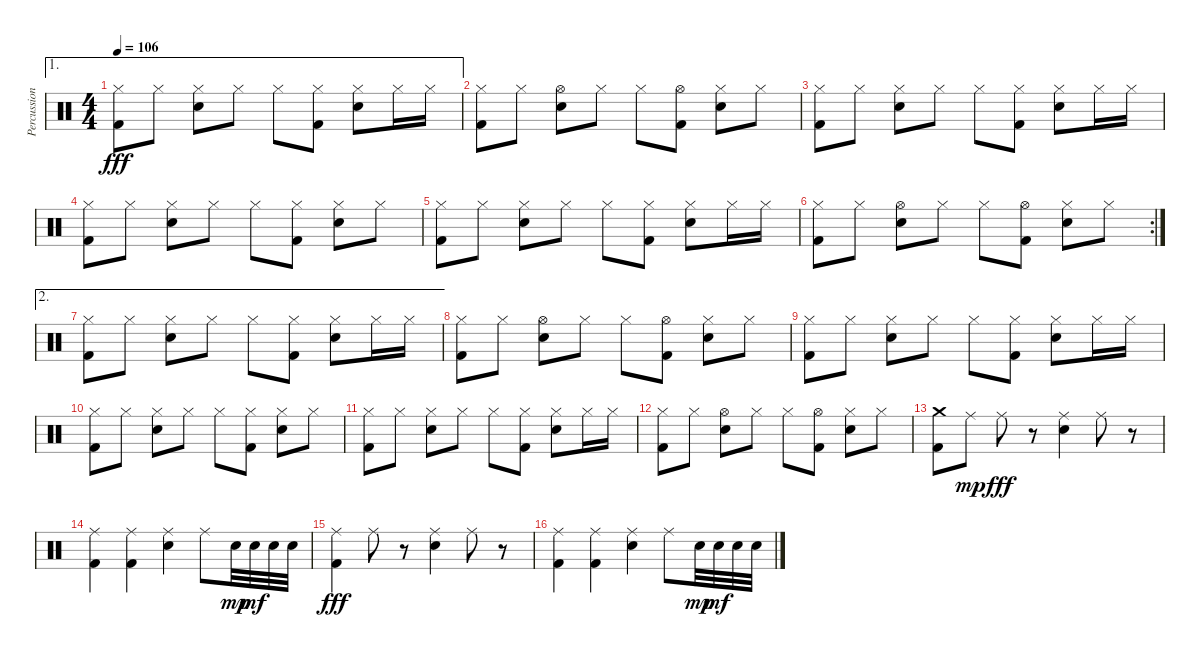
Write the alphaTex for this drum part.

\track ("Percussion" "Percussion") {instrument percussion}
\staff {score}
\articulation defaults
\ae 1
\ts (4 4)
\tempo 106
\clef neutral
\ks c
("Kick (hit) 2" "Hi-Hat (closed)").8{dy fff} "Hi-Hat (closed)".8 ("Snare (hit) 2" "Hi-Hat (closed)").8 "Hi-Hat (closed)".8 "Hi-Hat (closed)".8 ("Kick (hit) 2" "Hi-Hat (closed)").8 ("Snare (hit) 2" "Hi-Hat (closed)").8 "Hi-Hat (closed)".16 "Hi-Hat (closed)".16 |
("Kick (hit) 2" "Hi-Hat (closed)").8 "Hi-Hat (closed)".8 ("Snare (hit) 2" "Hi-Hat (open)").8 "Hi-Hat (closed)".8 "Hi-Hat (closed)".8 ("Kick (hit) 2" "Hi-Hat (open)").8 ("Snare (hit) 2" "Hi-Hat (closed)").8 "Hi-Hat (closed)".8 |
("Kick (hit) 2" "Hi-Hat (closed)").8 "Hi-Hat (closed)".8 ("Snare (hit) 2" "Hi-Hat (closed)").8 "Hi-Hat (closed)".8 "Hi-Hat (closed)".8 ("Kick (hit) 2" "Hi-Hat (closed)").8 ("Snare (hit) 2" "Hi-Hat (closed)").8 "Hi-Hat (closed)".16 "Hi-Hat (closed)".16 |
("Kick (hit) 2" "Hi-Hat (closed)").8 "Hi-Hat (closed)".8 ("Snare (hit) 2" "Hi-Hat (closed)").8 "Hi-Hat (closed)".8 "Hi-Hat (closed)".8 ("Kick (hit) 2" "Hi-Hat (closed)").8 ("Snare (hit) 2" "Hi-Hat (closed)").8 "Hi-Hat (closed)".8 |
("Kick (hit) 2" "Hi-Hat (closed)").8 "Hi-Hat (closed)".8 ("Snare (hit) 2" "Hi-Hat (closed)").8 "Hi-Hat (closed)".8 "Hi-Hat (closed)".8 ("Kick (hit) 2" "Hi-Hat (closed)").8 ("Snare (hit) 2" "Hi-Hat (closed)").8 "Hi-Hat (closed)".16 "Hi-Hat (closed)".16 |
\rc 2
("Kick (hit) 2" "Hi-Hat (closed)").8 "Hi-Hat (closed)".8 ("Snare (hit) 2" "Hi-Hat (open)").8 "Hi-Hat (closed)".8 "Hi-Hat (closed)".8 ("Kick (hit) 2" "Hi-Hat (open)").8 ("Snare (hit) 2" "Hi-Hat (closed)").8 "Hi-Hat (closed)".8 |
\ae 2
("Kick (hit) 2" "Hi-Hat (closed)").8 "Hi-Hat (closed)".8 ("Snare (hit) 2" "Hi-Hat (closed)").8 "Hi-Hat (closed)".8 "Hi-Hat (closed)".8 ("Kick (hit) 2" "Hi-Hat (closed)").8 ("Snare (hit) 2" "Hi-Hat (closed)").8 "Hi-Hat (closed)".16 "Hi-Hat (closed)".16 |
("Kick (hit) 2" "Hi-Hat (closed)").8 "Hi-Hat (closed)".8 ("Snare (hit) 2" "Hi-Hat (open)").8 "Hi-Hat (closed)".8 "Hi-Hat (closed)".8 ("Kick (hit) 2" "Hi-Hat (open)").8 ("Snare (hit) 2" "Hi-Hat (closed)").8 "Hi-Hat (closed)".8 |
("Kick (hit) 2" "Hi-Hat (closed)").8 "Hi-Hat (closed)".8 ("Snare (hit) 2" "Hi-Hat (closed)").8 "Hi-Hat (closed)".8 "Hi-Hat (closed)".8 ("Kick (hit) 2" "Hi-Hat (closed)").8 ("Snare (hit) 2" "Hi-Hat (closed)").8 "Hi-Hat (closed)".16 "Hi-Hat (closed)".16 |
("Kick (hit) 2" "Hi-Hat (closed)").8 "Hi-Hat (closed)".8 ("Snare (hit) 2" "Hi-Hat (closed)").8 "Hi-Hat (closed)".8 "Hi-Hat (closed)".8 ("Kick (hit) 2" "Hi-Hat (closed)").8 ("Snare (hit) 2" "Hi-Hat (closed)").8 "Hi-Hat (closed)".8 |
("Kick (hit) 2" "Hi-Hat (closed)").8 "Hi-Hat (closed)".8 ("Snare (hit) 2" "Hi-Hat (closed)").8 "Hi-Hat (closed)".8 "Hi-Hat (closed)".8 ("Kick (hit) 2" "Hi-Hat (closed)").8 ("Snare (hit) 2" "Hi-Hat (closed)").8 "Hi-Hat (closed)".16 "Hi-Hat (closed)".16 |
("Kick (hit) 2" "Hi-Hat (closed)").8 "Hi-Hat (closed)".8 ("Snare (hit) 2" "Hi-Hat (open)").8 "Hi-Hat (closed)".8 "Hi-Hat (closed)".8 ("Kick (hit) 2" "Hi-Hat (open)").8 ("Snare (hit) 2" "Hi-Hat (closed)").8 "Hi-Hat (closed)".8 |
("Kick (hit) 2" "Crash medium (hit)").8 "Ride (middle)".8{dy mp} "Ride (middle)".8{dy fff} r.8 ("Snare (hit) 2" "Ride (middle)").4 "Ride (middle)".8 r.8 |
("Kick (hit) 2" "Ride (middle)").4 ("Kick (hit) 2" "Ride (middle)").4 ("Snare (hit) 2" "Ride (middle)").4 "Ride (middle)".8 "Snare (hit) 2".32{dy mp} "Snare (hit) 2".32{dy mf} "Snare (hit) 2".32 "Snare (hit) 2".32 |
("Kick (hit) 2" "Ride (middle)").4{dy fff} "Ride (middle)".8 r.8 ("Snare (hit) 2" "Ride (middle)").4 "Ride (middle)".8 r.8 |
("Kick (hit) 2" "Ride (middle)").4 ("Kick (hit) 2" "Ride (middle)").4 ("Snare (hit) 2" "Ride (middle)").4 "Ride (middle)".8 "Snare (hit) 2".32{dy mp} "Snare (hit) 2".32{dy mf} "Snare (hit) 2".32 "Snare (hit) 2".32
